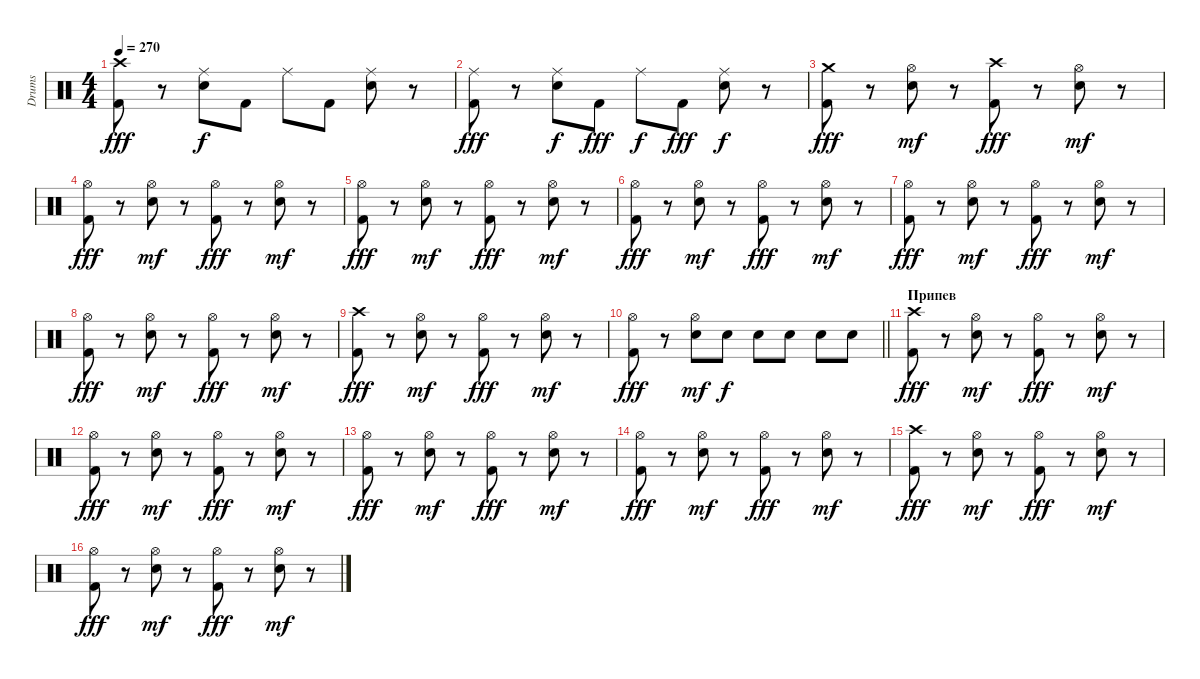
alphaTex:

\track ("Drums" "Drums") {instrument percussion}
\staff {score}
\articulation defaults
\ts (4 4)
\tempo 270
\clef neutral
\ks c
("Crash high (hit)" "Kick (hit) 2").8{dy fff} r.8 ("Ride (middle)" "Electric Snare (hit)").8{dy f} "Kick (hit) 2".8 "Ride (middle)".8 "Kick (hit) 2".8 ("Ride (middle)" "Electric Snare (hit)").8 r.8 |
("Ride (middle)" "Kick (hit) 2").8{dy fff} r.8 ("Ride (middle)" "Electric Snare (hit)").8{dy f} "Kick (hit) 2".8{dy fff} "Ride (middle)".8{dy f} "Kick (hit) 2".8{dy fff} ("Ride (middle)" "Electric Snare (hit)").8{dy f} r.8 |
("Crash medium (hit)" "Kick (hit) 2").8{dy fff} r.8 ("Hi-Hat (open)" "Electric Snare (hit)").8{dy mf} r.8 ("Crash high (hit)" "Kick (hit) 2").8{dy fff} r.8 ("Hi-Hat (open)" "Electric Snare (hit)").8{dy mf} r.8 |
("Hi-Hat (open)" "Kick (hit) 2").8{dy fff} r.8 ("Hi-Hat (open)" "Electric Snare (hit)").8{dy mf} r.8 ("Hi-Hat (open)" "Kick (hit) 2").8{dy fff} r.8 ("Hi-Hat (open)" "Electric Snare (hit)").8{dy mf} r.8 |
("Hi-Hat (open)" "Kick (hit) 2").8{dy fff} r.8 ("Hi-Hat (open)" "Electric Snare (hit)").8{dy mf} r.8 ("Hi-Hat (open)" "Kick (hit) 2").8{dy fff} r.8 ("Hi-Hat (open)" "Electric Snare (hit)").8{dy mf} r.8 |
("Hi-Hat (open)" "Kick (hit) 2").8{dy fff} r.8 ("Hi-Hat (open)" "Electric Snare (hit)").8{dy mf} r.8 ("Hi-Hat (open)" "Kick (hit) 2").8{dy fff} r.8 ("Hi-Hat (open)" "Electric Snare (hit)").8{dy mf} r.8 |
("Hi-Hat (open)" "Kick (hit) 2").8{dy fff} r.8 ("Hi-Hat (open)" "Electric Snare (hit)").8{dy mf} r.8 ("Hi-Hat (open)" "Kick (hit) 2").8{dy fff} r.8 ("Hi-Hat (open)" "Electric Snare (hit)").8{dy mf} r.8 |
("Hi-Hat (open)" "Kick (hit) 2").8{dy fff} r.8 ("Hi-Hat (open)" "Electric Snare (hit)").8{dy mf} r.8 ("Hi-Hat (open)" "Kick (hit) 2").8{dy fff} r.8 ("Hi-Hat (open)" "Electric Snare (hit)").8{dy mf} r.8 |
("Crash high (hit)" "Kick (hit) 2").8{dy fff} r.8 ("Hi-Hat (open)" "Electric Snare (hit)").8{dy mf} r.8 ("Hi-Hat (open)" "Kick (hit) 2").8{dy fff} r.8 ("Hi-Hat (open)" "Electric Snare (hit)").8{dy mf} r.8 |
\barLineRight lightlight
("Hi-Hat (open)" "Kick (hit) 2").8{dy fff} r.8 ("Hi-Hat (open)" "Electric Snare (hit)").8{dy mf} "Electric Snare (hit)".8{dy f} "Electric Snare (hit)".8 "Electric Snare (hit)".8 "Electric Snare (hit)".8 "Electric Snare (hit)".8 |
\section ("" "Припев")
("Crash high (hit)" "Kick (hit) 2").8{dy fff} r.8 ("Hi-Hat (open)" "Electric Snare (hit)").8{dy mf} r.8 ("Hi-Hat (open)" "Kick (hit) 2").8{dy fff} r.8 ("Hi-Hat (open)" "Electric Snare (hit)").8{dy mf} r.8 |
("Hi-Hat (open)" "Kick (hit) 2").8{dy fff} r.8 ("Hi-Hat (open)" "Electric Snare (hit)").8{dy mf} r.8 ("Hi-Hat (open)" "Kick (hit) 2").8{dy fff} r.8 ("Hi-Hat (open)" "Electric Snare (hit)").8{dy mf} r.8 |
("Hi-Hat (open)" "Kick (hit) 2").8{dy fff} r.8 ("Hi-Hat (open)" "Electric Snare (hit)").8{dy mf} r.8 ("Hi-Hat (open)" "Kick (hit) 2").8{dy fff} r.8 ("Hi-Hat (open)" "Electric Snare (hit)").8{dy mf} r.8 |
("Hi-Hat (open)" "Kick (hit) 2").8{dy fff} r.8 ("Hi-Hat (open)" "Electric Snare (hit)").8{dy mf} r.8 ("Hi-Hat (open)" "Kick (hit) 2").8{dy fff} r.8 ("Hi-Hat (open)" "Electric Snare (hit)").8{dy mf} r.8 |
("Crash high (hit)" "Kick (hit) 2").8{dy fff} r.8 ("Hi-Hat (open)" "Electric Snare (hit)").8{dy mf} r.8 ("Hi-Hat (open)" "Kick (hit) 2").8{dy fff} r.8 ("Hi-Hat (open)" "Electric Snare (hit)").8{dy mf} r.8 |
("Hi-Hat (open)" "Kick (hit) 2").8{dy fff} r.8 ("Hi-Hat (open)" "Electric Snare (hit)").8{dy mf} r.8 ("Hi-Hat (open)" "Kick (hit) 2").8{dy fff} r.8 ("Hi-Hat (open)" "Electric Snare (hit)").8{dy mf} r.8
